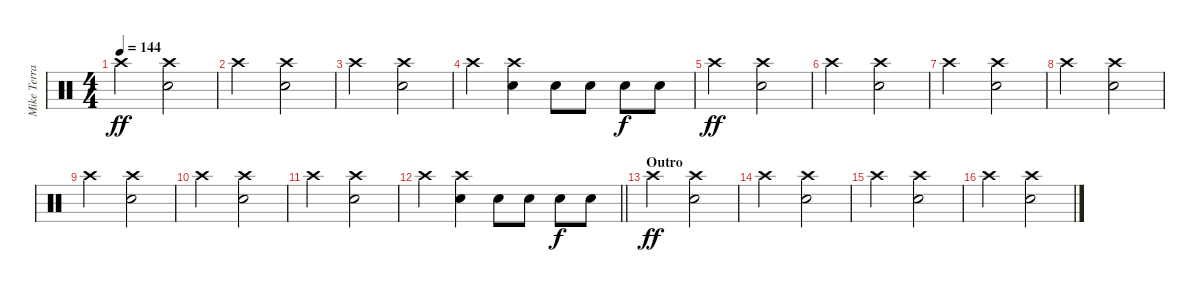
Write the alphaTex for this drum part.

\track ("Mike Terrana" "Mike Terra") {instrument percussion}
\staff {score}
\articulation defaults
\ts (4 4)
\tempo 144
\clef neutral
\ks c "Crash high (hit)".2{dy ff}
("Snare (hit) 2" "Crash high (hit)").2 |
"Crash high (hit)".2 ("Snare (hit) 2" "Crash high (hit)").2 |
"Crash high (hit)".2 ("Snare (hit) 2" "Crash high (hit)").2 |
"Crash high (hit)".4 ("Snare (hit) 2" "Crash high (hit)").4 "Snare (hit) 2".8 "Snare (hit) 2".8 "Snare (hit) 2".8{dy f} "Snare (hit) 2".8 |
"Crash high (hit)".2{dy ff} ("Snare (hit) 2" "Crash high (hit)").2 |
"Crash high (hit)".2 ("Snare (hit) 2" "Crash high (hit)").2 |
"Crash high (hit)".2 ("Snare (hit) 2" "Crash high (hit)").2 |
"Crash high (hit)".2 ("Snare (hit) 2" "Crash high (hit)").2 |
"Crash high (hit)".2 ("Snare (hit) 2" "Crash high (hit)").2 |
"Crash high (hit)".2 ("Snare (hit) 2" "Crash high (hit)").2 |
"Crash high (hit)".2 ("Snare (hit) 2" "Crash high (hit)").2 |
\barLineRight lightlight "Crash high (hit)".4
("Snare (hit) 2" "Crash high (hit)").4 "Snare (hit) 2".8 "Snare (hit) 2".8 "Snare (hit) 2".8{dy f} "Snare (hit) 2".8 |
\section ("" "Outro")
"Crash high (hit)".2{dy ff} ("Snare (hit) 2" "Crash high (hit)").2 |
"Crash high (hit)".2 ("Snare (hit) 2" "Crash high (hit)").2 |
"Crash high (hit)".2 ("Snare (hit) 2" "Crash high (hit)").2 |
"Crash high (hit)".2 ("Snare (hit) 2" "Crash high (hit)").2
